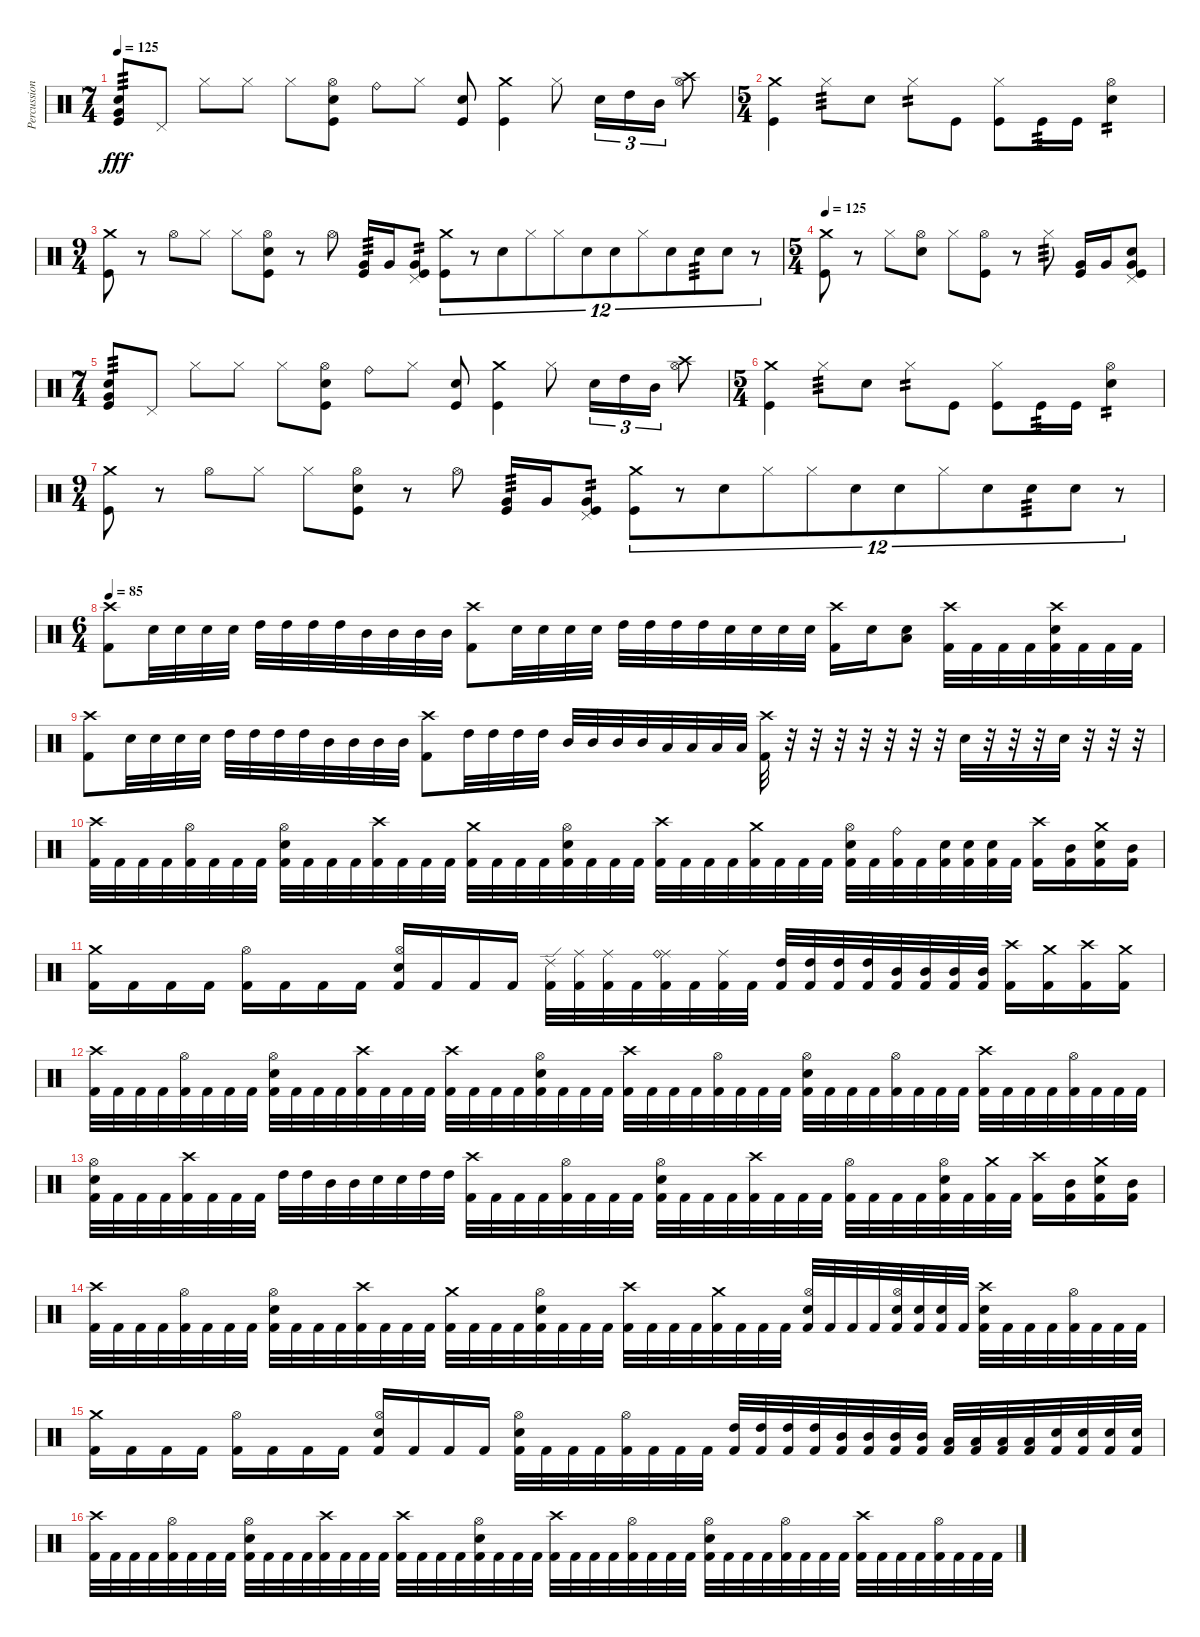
\track ("Percussion" "Percussion") {mute instrument percussion}
\staff {score}
\articulation defaults
\ts (7 4)
\tempo 125
\clef neutral
\ks c
("Kick (hit)" "Electric Snare (hit)" "Very Low Tom (hit)").8{tp 3 dy fff} "Pedal Hi-Hat (hit)".8 "Hi-Hat (closed)".8 "Hi-Hat (closed)".8 "Hi-Hat (closed)".8 ("Kick (hit)" "Snare (hit) 2" "Hi-Hat (open)").8 "Ride (bell)".8 "Hi-Hat (closed)".8 ("Kick (hit)" "Snare (hit) 2").8 ("Kick (hit)" "Crash medium (hit)").4 "Hi-Hat (closed)".8 "Snare (hit) 2".16{tu (3 2)} "High Tom (hit)".16{tu (3 2)} "Mid Tom (hit)".16{tu (3 2)} ("Crash high (hit)" "Hi-Hat (open)").8 |
\ts (5 4)
("Kick (hit)" "Crash medium (hit)").4 "Hi-Hat (closed)".8{tp 3} "Electric Snare (hit)".8 "Hi-Hat (closed)".8{tp 2} "Kick (hit)".8 ("Kick (hit)" "Hi-Hat (closed)").8 "Kick (hit)".16{tp 3} "Kick (hit)".16 ("Electric Snare (hit)" "Hi-Hat (open)").4{tp 2} |
\ts (9 4)
("Kick (hit)" "Crash medium (hit)").8 r.8 "Hi-Hat (open)".8 "Hi-Hat (closed)".8 "Hi-Hat (closed)".8 ("Kick (hit)" "Snare (hit) 2" "Hi-Hat (open)").8 r.8 "Hi-Hat (open)".8 ("Kick (hit)" "Very Low Tom (hit)").16{tp 3} "Very Low Tom (hit)".16 ("Kick (hit)" "Very Low Tom (hit)" "Pedal Hi-Hat (hit)").8{tp 2} ("Kick (hit)" "Crash medium (hit)").8{tu (12 8)} r.8{tu (12 8)} "Snare (hit) 2".8{tu (12 8)} "Hi-Hat (closed)".8{tu (12 8)} "Hi-Hat (closed)".8{tu (12 8)} "Snare (hit) 2".8{tu (12 8)} "Snare (hit) 2".8{tu (12 8)} "Hi-Hat (closed)".8{tu (12 8)} "Snare (hit) 2".8{tu (12 8)} "Snare (hit) 2".8{tu (12 8) tp 3} "Snare (hit) 2".8{tu (12 8)} r.8{tu (12 8)} |
\ts (5 4)
\tempo 125
("Kick (hit)" "Crash medium (hit)").8 r.8 "Hi-Hat (closed)".8 ("Electric Snare (hit)" "Hi-Hat (open)").8 "Hi-Hat (closed)".8 ("Kick (hit)" "Hi-Hat (open)").8 r.8 "Hi-Hat (closed)".8{tp 3} ("Kick (hit)" "Very Low Tom (hit)").16 "Very Low Tom (hit)".16 ("Kick (hit)" "Electric Snare (hit)" "Very Low Tom (hit)" "Pedal Hi-Hat (hit)").8 |
\ts (7 4)
("Kick (hit)" "Electric Snare (hit)" "Very Low Tom (hit)").8{tp 3} "Pedal Hi-Hat (hit)".8 "Hi-Hat (closed)".8 "Hi-Hat (closed)".8 "Hi-Hat (closed)".8 ("Kick (hit)" "Snare (hit) 2" "Hi-Hat (open)").8 "Ride (bell)".8 "Hi-Hat (closed)".8 ("Kick (hit)" "Snare (hit) 2").8 ("Kick (hit)" "Crash medium (hit)").4 "Hi-Hat (closed)".8 "Snare (hit) 2".16{tu (3 2)} "High Tom (hit)".16{tu (3 2)} "Mid Tom (hit)".16{tu (3 2)} ("Crash high (hit)" "Hi-Hat (open)").8 |
\ts (5 4)
("Kick (hit)" "Crash medium (hit)").4 "Hi-Hat (closed)".8{tp 3} "Electric Snare (hit)".8 "Hi-Hat (closed)".8{tp 2} "Kick (hit)".8 ("Kick (hit)" "Hi-Hat (closed)").8 "Kick (hit)".16{tp 3} "Kick (hit)".16 ("Electric Snare (hit)" "Hi-Hat (open)").4{tp 2} |
\ts (9 4)
("Kick (hit)" "Crash medium (hit)").8 r.8 "Hi-Hat (open)".8 "Hi-Hat (closed)".8 "Hi-Hat (closed)".8 ("Kick (hit)" "Snare (hit) 2" "Hi-Hat (open)").8 r.8 "Hi-Hat (open)".8 ("Kick (hit)" "Very Low Tom (hit)").16{tp 3} "Very Low Tom (hit)".16 ("Kick (hit)" "Very Low Tom (hit)" "Pedal Hi-Hat (hit)").8{tp 2} ("Kick (hit)" "Crash medium (hit)").8{tu (12 8)} r.8{tu (12 8)} "Snare (hit) 2".8{tu (12 8)} "Hi-Hat (closed)".8{tu (12 8)} "Hi-Hat (closed)".8{tu (12 8)} "Snare (hit) 2".8{tu (12 8)} "Snare (hit) 2".8{tu (12 8)} "Hi-Hat (closed)".8{tu (12 8)} "Snare (hit) 2".8{tu (12 8)} "Snare (hit) 2".8{tu (12 8) tp 3} "Snare (hit) 2".8{tu (12 8)} r.8{tu (12 8)} |
\ts (6 4)
\tempo 85
("Kick (hit) 2" "Crash high (hit)").8 "Electric Snare (hit)".32 "Electric Snare (hit)".32 "Electric Snare (hit)".32 "Electric Snare (hit)".32 "High Tom (hit)".32 "High Tom (hit)".32 "High Tom (hit)".32 "High Tom (hit)".32 "Mid Tom (hit)".32 "Mid Tom (hit)".32 "Mid Tom (hit)".32 "Mid Tom (hit)".32 ("Kick (hit) 2" "Crash high (hit)").8 "Electric Snare (hit)".32 "Electric Snare (hit)".32 "Electric Snare (hit)".32 "Electric Snare (hit)".32 "High Tom (hit)".32 "High Tom (hit)".32 "High Tom (hit)".32 "High Tom (hit)".32 "Electric Snare (hit)".32 "Electric Snare (hit)".32 "Electric Snare (hit)".32 "Electric Snare (hit)".32 ("Kick (hit) 2" "Crash high (hit)").16 "Electric Snare (hit)".16 ("Electric Snare (hit)" "Low Tom (hit)").8 ("Crash high (hit)" "Kick (hit) 2").32 "Kick (hit) 2".32 "Kick (hit) 2".32 "Kick (hit) 2".32 ("Electric Snare (hit)" "Crash high (hit)" "Kick (hit) 2").32 "Kick (hit) 2".32 "Kick (hit) 2".32 "Kick (hit) 2".32 |
("Kick (hit) 2" "Crash high (hit)").8 "Electric Snare (hit)".32 "Electric Snare (hit)".32 "Electric Snare (hit)".32 "Electric Snare (hit)".32 "High Tom (hit)".32 "High Tom (hit)".32 "High Tom (hit)".32 "High Tom (hit)".32 "Mid Tom (hit)".32 "Mid Tom (hit)".32 "Mid Tom (hit)".32 "Mid Tom (hit)".32 ("Kick (hit) 2" "Crash high (hit)").8 "High Tom (hit)".32 "High Tom (hit)".32 "High Tom (hit)".32 "High Tom (hit)".32 "Mid Tom (hit)".32 "Mid Tom (hit)".32 "Mid Tom (hit)".32 "Mid Tom (hit)".32 "Low Tom (hit)".32 "Low Tom (hit)".32 "Low Tom (hit)".32 "Low Tom (hit)".32 ("Crash high (hit)" "Kick (hit) 2").32 r.32 r.32 r.32 r.32 r.32 r.32 r.32 "Electric Snare (hit)".32 r.32 r.32 r.32 "Electric Snare (hit)".32 r.32 r.32 r.32 |
("Crash high (hit)" "Kick (hit) 2").32 "Kick (hit) 2".32 "Kick (hit) 2".32 "Kick (hit) 2".32 ("Hi-Hat (open)" "Kick (hit) 2").32 "Kick (hit) 2".32 "Kick (hit) 2".32 "Kick (hit) 2".32 ("Electric Snare (hit)" "Hi-Hat (open)" "Kick (hit) 2").32 "Kick (hit) 2".32 "Kick (hit) 2".32 "Kick (hit) 2".32 ("Crash high (hit)" "Kick (hit) 2").32 "Kick (hit) 2".32 "Kick (hit) 2".32 "Kick (hit) 2".32 ("Crash medium (hit)" "Kick (hit) 2").32 "Kick (hit) 2".32 "Kick (hit) 2".32 "Kick (hit) 2".32 ("Electric Snare (hit)" "Hi-Hat (open)" "Kick (hit) 2").32 "Kick (hit) 2".32 "Kick (hit) 2".32 "Kick (hit) 2".32 ("Crash high (hit)" "Kick (hit) 2").32 "Kick (hit) 2".32 "Kick (hit) 2".32 "Kick (hit) 2".32 ("Crash medium (hit)" "Kick (hit) 2").32 "Kick (hit) 2".32 "Kick (hit) 2".32 "Kick (hit) 2".32 ("Electric Snare (hit)" "Hi-Hat (open)" "Kick (hit) 2").32 "Kick (hit) 2".32 ("Ride (bell)" "Kick (hit) 2").32 "Kick (hit) 2".32 ("Electric Snare (hit)" "Kick (hit) 2").32 ("Electric Snare (hit)" "Kick (hit) 2").32 ("Electric Snare (hit)" "Kick (hit) 2").32 "Kick (hit) 2".32 ("Crash high (hit)" "Kick (hit) 2").16 ("Mid Tom (hit)" "Kick (hit) 2").16 ("Electric Snare (hit)" "Crash medium (hit)" "Kick (hit) 2").16 ("Mid Tom (hit)" "Kick (hit) 2").16 |
("Crash medium (hit)" "Kick (hit) 2").16 "Kick (hit) 2".16 "Kick (hit) 2".16 "Kick (hit) 2".16 ("Hi-Hat (open)" "Kick (hit) 2").16 "Kick (hit) 2".16 "Kick (hit) 2".16 "Kick (hit) 2".16 ("Electric Snare (hit)" "Hi-Hat (open)" "Kick (hit) 2").16 "Kick (hit) 2".16 "Kick (hit) 2".16 "Kick (hit) 2".16 ("Ride (edge) 2" "Kick (hit) 2").32 ("Ride (middle)" "Kick (hit) 2").32 ("Ride (middle)" "Kick (hit) 2").32 "Kick (hit) 2".32 ("Ride (middle)" "Ride (bell)" "Kick (hit) 2").32 "Kick (hit) 2".32 ("Ride (middle)" "Kick (hit) 2").32 "Kick (hit) 2".32 ("High Tom (hit)" "Kick (hit) 2").32 ("High Tom (hit)" "Kick (hit) 2").32 ("High Tom (hit)" "Kick (hit) 2").32 ("High Tom (hit)" "Kick (hit) 2").32 ("Mid Tom (hit)" "Kick (hit) 2").32 ("Mid Tom (hit)" "Kick (hit) 2").32 ("Mid Tom (hit)" "Kick (hit) 2").32 ("Mid Tom (hit)" "Kick (hit) 2").32 ("Crash high (hit)" "Kick (hit) 2").16 ("Crash medium (hit)" "Kick (hit) 2").16 ("Crash high (hit)" "Kick (hit) 2").16 ("Crash medium (hit)" "Kick (hit) 2").16 |
("Crash high (hit)" "Kick (hit) 2").32 "Kick (hit) 2".32 "Kick (hit) 2".32 "Kick (hit) 2".32 ("Hi-Hat (open)" "Kick (hit) 2").32 "Kick (hit) 2".32 "Kick (hit) 2".32 "Kick (hit) 2".32 ("Electric Snare (hit)" "Hi-Hat (open)" "Kick (hit) 2").32 "Kick (hit) 2".32 "Kick (hit) 2".32 "Kick (hit) 2".32 ("Crash high (hit)" "Kick (hit) 2").32 "Kick (hit) 2".32 "Kick (hit) 2".32 "Kick (hit) 2".32 ("Crash high (hit)" "Kick (hit) 2").32 "Kick (hit) 2".32 "Kick (hit) 2".32 "Kick (hit) 2".32 ("Electric Snare (hit)" "Hi-Hat (open)" "Kick (hit) 2").32 "Kick (hit) 2".32 "Kick (hit) 2".32 "Kick (hit) 2".32 ("Crash high (hit)" "Kick (hit) 2").32 "Kick (hit) 2".32 "Kick (hit) 2".32 "Kick (hit) 2".32 ("Hi-Hat (open)" "Kick (hit) 2").32 "Kick (hit) 2".32 "Kick (hit) 2".32 "Kick (hit) 2".32 ("Electric Snare (hit)" "Hi-Hat (open)" "Kick (hit) 2").32 "Kick (hit) 2".32 "Kick (hit) 2".32 "Kick (hit) 2".32 ("Hi-Hat (open)" "Kick (hit) 2").32 "Kick (hit) 2".32 "Kick (hit) 2".32 "Kick (hit) 2".32 ("Crash high (hit)" "Kick (hit) 2").32 "Kick (hit) 2".32 "Kick (hit) 2".32 "Kick (hit) 2".32 ("Hi-Hat (open)" "Kick (hit) 2").32 "Kick (hit) 2".32 "Kick (hit) 2".32 "Kick (hit) 2".32 |
("Electric Snare (hit)" "Hi-Hat (open)" "Kick (hit) 2").32 "Kick (hit) 2".32 "Kick (hit) 2".32 "Kick (hit) 2".32 ("Crash high (hit)" "Kick (hit) 2").32 "Kick (hit) 2".32 "Kick (hit) 2".32 "Kick (hit) 2".32 "High Tom (hit)".32 "High Tom (hit)".32 "Mid Tom (hit)".32 "Mid Tom (hit)".32 "Electric Snare (hit)".32 "Electric Snare (hit)".32 "High Tom (hit)".32 "High Tom (hit)".32 ("Crash high (hit)" "Kick (hit) 2").32 "Kick (hit) 2".32 "Kick (hit) 2".32 "Kick (hit) 2".32 ("Hi-Hat (open)" "Kick (hit) 2").32 "Kick (hit) 2".32 "Kick (hit) 2".32 "Kick (hit) 2".32 ("Electric Snare (hit)" "Hi-Hat (open)" "Kick (hit) 2").32 "Kick (hit) 2".32 "Kick (hit) 2".32 "Kick (hit) 2".32 ("Crash high (hit)" "Kick (hit) 2").32 "Kick (hit) 2".32 "Kick (hit) 2".32 "Kick (hit) 2".32 ("Hi-Hat (open)" "Kick (hit) 2").32 "Kick (hit) 2".32 "Kick (hit) 2".32 "Kick (hit) 2".32 ("Electric Snare (hit)" "Hi-Hat (open)" "Kick (hit) 2").32 "Kick (hit) 2".32 ("Crash medium (hit)" "Kick (hit) 2").32 "Kick (hit) 2".32 ("Crash high (hit)" "Kick (hit) 2").16 ("Mid Tom (hit)" "Kick (hit) 2").16 ("Electric Snare (hit)" "Crash medium (hit)" "Kick (hit) 2").16 ("Mid Tom (hit)" "Kick (hit) 2").16 |
("Crash high (hit)" "Kick (hit) 2").32 "Kick (hit) 2".32 "Kick (hit) 2".32 "Kick (hit) 2".32 ("Hi-Hat (open)" "Kick (hit) 2").32 "Kick (hit) 2".32 "Kick (hit) 2".32 "Kick (hit) 2".32 ("Electric Snare (hit)" "Hi-Hat (open)" "Kick (hit) 2").32 "Kick (hit) 2".32 "Kick (hit) 2".32 "Kick (hit) 2".32 ("Crash high (hit)" "Kick (hit) 2").32 "Kick (hit) 2".32 "Kick (hit) 2".32 "Kick (hit) 2".32 ("Crash medium (hit)" "Kick (hit) 2").32 "Kick (hit) 2".32 "Kick (hit) 2".32 "Kick (hit) 2".32 ("Electric Snare (hit)" "Hi-Hat (open)" "Kick (hit) 2").32 "Kick (hit) 2".32 "Kick (hit) 2".32 "Kick (hit) 2".32 ("Crash high (hit)" "Kick (hit) 2").32 "Kick (hit) 2".32 "Kick (hit) 2".32 "Kick (hit) 2".32 ("Crash medium (hit)" "Kick (hit) 2").32 "Kick (hit) 2".32 "Kick (hit) 2".32 "Kick (hit) 2".32 ("Electric Snare (hit)" "Hi-Hat (open)" "Kick (hit) 2").32 "Kick (hit) 2".32 "Kick (hit) 2".32 "Kick (hit) 2".32 ("Electric Snare (hit)" "Hi-Hat (open)" "Kick (hit) 2").32 ("Electric Snare (hit)" "Kick (hit) 2").32 ("Electric Snare (hit)" "Kick (hit) 2").32 "Kick (hit) 2".32 ("Electric Snare (hit)" "Crash high (hit)" "Kick (hit) 2").32 "Kick (hit) 2".32 "Kick (hit) 2".32 "Kick (hit) 2".32 ("Hi-Hat (open)" "Kick (hit) 2").32 "Kick (hit) 2".32 "Kick (hit) 2".32 "Kick (hit) 2".32 |
("Crash medium (hit)" "Kick (hit) 2").16 "Kick (hit) 2".16 "Kick (hit) 2".16 "Kick (hit) 2".16 ("Hi-Hat (open)" "Kick (hit) 2").16 "Kick (hit) 2".16 "Kick (hit) 2".16 "Kick (hit) 2".16 ("Electric Snare (hit)" "Hi-Hat (open)" "Kick (hit) 2").16 "Kick (hit) 2".16 "Kick (hit) 2".16 "Kick (hit) 2".16 ("Hi-Hat (open)" "Electric Snare (hit)" "Kick (hit) 2").32 "Kick (hit) 2".32 "Kick (hit) 2".32 "Kick (hit) 2".32 ("Hi-Hat (open)" "Kick (hit) 2").32 "Kick (hit) 2".32 "Kick (hit) 2".32 "Kick (hit) 2".32 ("High Tom (hit)" "Kick (hit) 2").32 ("High Tom (hit)" "Kick (hit) 2").32 ("High Tom (hit)" "Kick (hit) 2").32 ("High Tom (hit)" "Kick (hit) 2").32 ("Mid Tom (hit)" "Kick (hit) 2").32 ("Mid Tom (hit)" "Kick (hit) 2").32 ("Mid Tom (hit)" "Kick (hit) 2").32 ("Mid Tom (hit)" "Kick (hit) 2").32 ("Low Tom (hit)" "Kick (hit) 2").32 ("Low Tom (hit)" "Kick (hit) 2").32 ("Low Tom (hit)" "Kick (hit) 2").32 ("Low Tom (hit)" "Kick (hit) 2").32 ("Electric Snare (hit)" "Kick (hit) 2").32 ("Electric Snare (hit)" "Kick (hit) 2").32 ("Electric Snare (hit)" "Kick (hit) 2").32 ("Electric Snare (hit)" "Kick (hit) 2").32 |
("Crash high (hit)" "Kick (hit) 2").32 "Kick (hit) 2".32 "Kick (hit) 2".32 "Kick (hit) 2".32 ("Hi-Hat (open)" "Kick (hit) 2").32 "Kick (hit) 2".32 "Kick (hit) 2".32 "Kick (hit) 2".32 ("Electric Snare (hit)" "Hi-Hat (open)" "Kick (hit) 2").32 "Kick (hit) 2".32 "Kick (hit) 2".32 "Kick (hit) 2".32 ("Crash high (hit)" "Kick (hit) 2").32 "Kick (hit) 2".32 "Kick (hit) 2".32 "Kick (hit) 2".32 ("Crash high (hit)" "Kick (hit) 2").32 "Kick (hit) 2".32 "Kick (hit) 2".32 "Kick (hit) 2".32 ("Electric Snare (hit)" "Hi-Hat (open)" "Kick (hit) 2").32 "Kick (hit) 2".32 "Kick (hit) 2".32 "Kick (hit) 2".32 ("Crash high (hit)" "Kick (hit) 2").32 "Kick (hit) 2".32 "Kick (hit) 2".32 "Kick (hit) 2".32 ("Hi-Hat (open)" "Kick (hit) 2").32 "Kick (hit) 2".32 "Kick (hit) 2".32 "Kick (hit) 2".32 ("Electric Snare (hit)" "Hi-Hat (open)" "Kick (hit) 2").32 "Kick (hit) 2".32 "Kick (hit) 2".32 "Kick (hit) 2".32 ("Hi-Hat (open)" "Kick (hit) 2").32 "Kick (hit) 2".32 "Kick (hit) 2".32 "Kick (hit) 2".32 ("Crash high (hit)" "Kick (hit) 2").32 "Kick (hit) 2".32 "Kick (hit) 2".32 "Kick (hit) 2".32 ("Hi-Hat (open)" "Kick (hit) 2").32 "Kick (hit) 2".32 "Kick (hit) 2".32 "Kick (hit) 2".32
